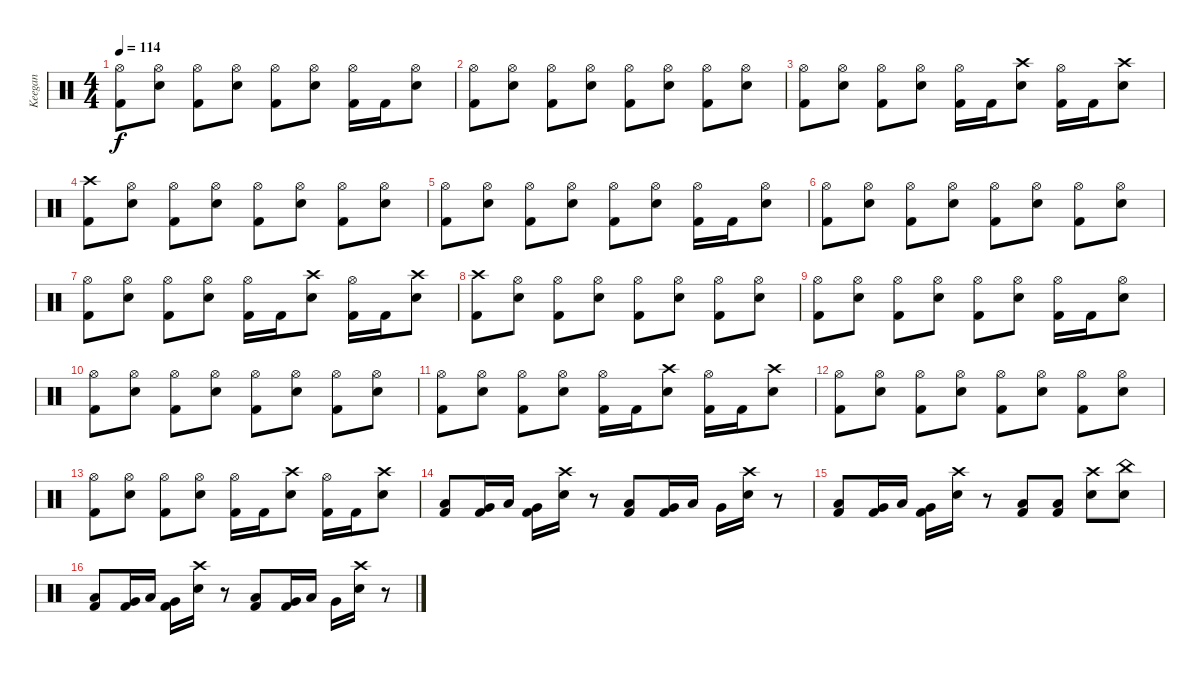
\track ("Keegan" "Keegan") {instrument percussion}
\staff {score}
\articulation defaults
\ts (4 4)
\tempo 114
\clef neutral
\ks c
("Hi-Hat (open)" "Kick (hit) 2").8{dy f} ("Hi-Hat (open)" "Electric Snare (hit)").8 ("Hi-Hat (open)" "Kick (hit) 2").8 ("Hi-Hat (open)" "Electric Snare (hit)").8 ("Hi-Hat (open)" "Kick (hit) 2").8 ("Hi-Hat (open)" "Electric Snare (hit)").8 ("Hi-Hat (open)" "Kick (hit) 2").16 "Kick (hit) 2".16 ("Hi-Hat (open)" "Electric Snare (hit)").8 |
("Hi-Hat (open)" "Kick (hit) 2").8 ("Hi-Hat (open)" "Electric Snare (hit)").8 ("Hi-Hat (open)" "Kick (hit) 2").8 ("Hi-Hat (open)" "Electric Snare (hit)").8 ("Hi-Hat (open)" "Kick (hit) 2").8 ("Hi-Hat (open)" "Electric Snare (hit)").8 ("Hi-Hat (open)" "Kick (hit) 2").8 ("Hi-Hat (open)" "Electric Snare (hit)").8 |
("Hi-Hat (open)" "Kick (hit) 2").8 ("Hi-Hat (open)" "Electric Snare (hit)").8 ("Hi-Hat (open)" "Kick (hit) 2").8 ("Hi-Hat (open)" "Electric Snare (hit)").8 ("Hi-Hat (open)" "Kick (hit) 2").16 "Kick (hit) 2".16 ("Crash high (hit)" "Electric Snare (hit)").8 ("Hi-Hat (open)" "Kick (hit) 2").16 "Kick (hit) 2".16 ("Crash high (hit)" "Electric Snare (hit)").8 |
("Crash high (hit)" "Kick (hit) 2").8 ("Hi-Hat (open)" "Electric Snare (hit)").8 ("Hi-Hat (open)" "Kick (hit) 2").8 ("Hi-Hat (open)" "Electric Snare (hit)").8 ("Hi-Hat (open)" "Kick (hit) 2").8 ("Hi-Hat (open)" "Electric Snare (hit)").8 ("Hi-Hat (open)" "Kick (hit) 2").8 ("Hi-Hat (open)" "Electric Snare (hit)").8 |
("Hi-Hat (open)" "Kick (hit) 2").8 ("Hi-Hat (open)" "Electric Snare (hit)").8 ("Hi-Hat (open)" "Kick (hit) 2").8 ("Hi-Hat (open)" "Electric Snare (hit)").8 ("Hi-Hat (open)" "Kick (hit) 2").8 ("Hi-Hat (open)" "Electric Snare (hit)").8 ("Hi-Hat (open)" "Kick (hit) 2").16 "Kick (hit) 2".16 ("Hi-Hat (open)" "Electric Snare (hit)").8 |
("Hi-Hat (open)" "Kick (hit) 2").8 ("Hi-Hat (open)" "Electric Snare (hit)").8 ("Hi-Hat (open)" "Kick (hit) 2").8 ("Hi-Hat (open)" "Electric Snare (hit)").8 ("Hi-Hat (open)" "Kick (hit) 2").8 ("Hi-Hat (open)" "Electric Snare (hit)").8 ("Hi-Hat (open)" "Kick (hit) 2").8 ("Hi-Hat (open)" "Electric Snare (hit)").8 |
("Hi-Hat (open)" "Kick (hit) 2").8 ("Hi-Hat (open)" "Electric Snare (hit)").8 ("Hi-Hat (open)" "Kick (hit) 2").8 ("Hi-Hat (open)" "Electric Snare (hit)").8 ("Hi-Hat (open)" "Kick (hit) 2").16 "Kick (hit) 2".16 ("Crash high (hit)" "Electric Snare (hit)").8 ("Hi-Hat (open)" "Kick (hit) 2").16 "Kick (hit) 2".16 ("Crash high (hit)" "Electric Snare (hit)").8 |
("Crash high (hit)" "Kick (hit) 2").8 ("Hi-Hat (open)" "Electric Snare (hit)").8 ("Hi-Hat (open)" "Kick (hit) 2").8 ("Hi-Hat (open)" "Electric Snare (hit)").8 ("Hi-Hat (open)" "Kick (hit) 2").8 ("Hi-Hat (open)" "Electric Snare (hit)").8 ("Hi-Hat (open)" "Kick (hit) 2").8 ("Hi-Hat (open)" "Electric Snare (hit)").8 |
("Hi-Hat (open)" "Kick (hit) 2").8 ("Hi-Hat (open)" "Electric Snare (hit)").8 ("Hi-Hat (open)" "Kick (hit) 2").8 ("Hi-Hat (open)" "Electric Snare (hit)").8 ("Hi-Hat (open)" "Kick (hit) 2").8 ("Hi-Hat (open)" "Electric Snare (hit)").8 ("Hi-Hat (open)" "Kick (hit) 2").16 "Kick (hit) 2".16 ("Hi-Hat (open)" "Electric Snare (hit)").8 |
("Hi-Hat (open)" "Kick (hit) 2").8 ("Hi-Hat (open)" "Electric Snare (hit)").8 ("Hi-Hat (open)" "Kick (hit) 2").8 ("Hi-Hat (open)" "Electric Snare (hit)").8 ("Hi-Hat (open)" "Kick (hit) 2").8 ("Hi-Hat (open)" "Electric Snare (hit)").8 ("Hi-Hat (open)" "Kick (hit) 2").8 ("Hi-Hat (open)" "Electric Snare (hit)").8 |
("Hi-Hat (open)" "Kick (hit) 2").8 ("Hi-Hat (open)" "Electric Snare (hit)").8 ("Hi-Hat (open)" "Kick (hit) 2").8 ("Hi-Hat (open)" "Electric Snare (hit)").8 ("Hi-Hat (open)" "Kick (hit) 2").16 "Kick (hit) 2".16 ("Crash high (hit)" "Electric Snare (hit)").8 ("Hi-Hat (open)" "Kick (hit) 2").16 "Kick (hit) 2".16 ("Crash high (hit)" "Electric Snare (hit)").8 |
("Hi-Hat (open)" "Kick (hit) 2").8 ("Hi-Hat (open)" "Electric Snare (hit)").8 ("Hi-Hat (open)" "Kick (hit) 2").8 ("Hi-Hat (open)" "Electric Snare (hit)").8 ("Hi-Hat (open)" "Kick (hit) 2").8 ("Hi-Hat (open)" "Electric Snare (hit)").8 ("Hi-Hat (open)" "Kick (hit) 2").8 ("Hi-Hat (open)" "Electric Snare (hit)").8 |
("Hi-Hat (open)" "Kick (hit) 2").8 ("Hi-Hat (open)" "Electric Snare (hit)").8 ("Hi-Hat (open)" "Kick (hit) 2").8 ("Hi-Hat (open)" "Electric Snare (hit)").8 ("Hi-Hat (open)" "Kick (hit) 2").16 "Kick (hit) 2".16 ("Crash high (hit)" "Electric Snare (hit)").8 ("Hi-Hat (open)" "Kick (hit) 2").16 "Kick (hit) 2".16 ("Crash high (hit)" "Electric Snare (hit)").8 |
("Low Tom (hit)" "Kick (hit) 2").8 ("Very Low Tom (hit)" "Kick (hit) 2").16 "Low Tom (hit)".16 ("Very Low Tom (hit)" "Kick (hit) 2").16 ("Crash high (hit)" "Electric Snare (hit)").16 r.8 ("Low Tom (hit)" "Kick (hit) 2").8 ("Very Low Tom (hit)" "Kick (hit) 2").16 "Low Tom (hit)".16 "Very Low Tom (hit)".16 ("Crash high (hit)" "Electric Snare (hit)").16 r.8 |
("Low Tom (hit)" "Kick (hit) 2").8 ("Very Low Tom (hit)" "Kick (hit) 2").16 "Low Tom (hit)".16 ("Very Low Tom (hit)" "Kick (hit) 2").16 ("Crash high (hit)" "Electric Snare (hit)").16 r.8 ("Low Tom (hit)" "Kick (hit) 2").8 ("Low Tom (hit)" "Kick (hit) 2").8 ("Crash high (hit)" "Electric Snare (hit)").8 ("China (hit)" "Electric Snare (hit)").8 |
("Low Tom (hit)" "Kick (hit) 2").8 ("Very Low Tom (hit)" "Kick (hit) 2").16 "Low Tom (hit)".16 ("Very Low Tom (hit)" "Kick (hit) 2").16 ("Crash high (hit)" "Electric Snare (hit)").16 r.8 ("Low Tom (hit)" "Kick (hit) 2").8 ("Very Low Tom (hit)" "Kick (hit) 2").16 "Low Tom (hit)".16 "Very Low Tom (hit)".16 ("Crash high (hit)" "Electric Snare (hit)").16 r.8
